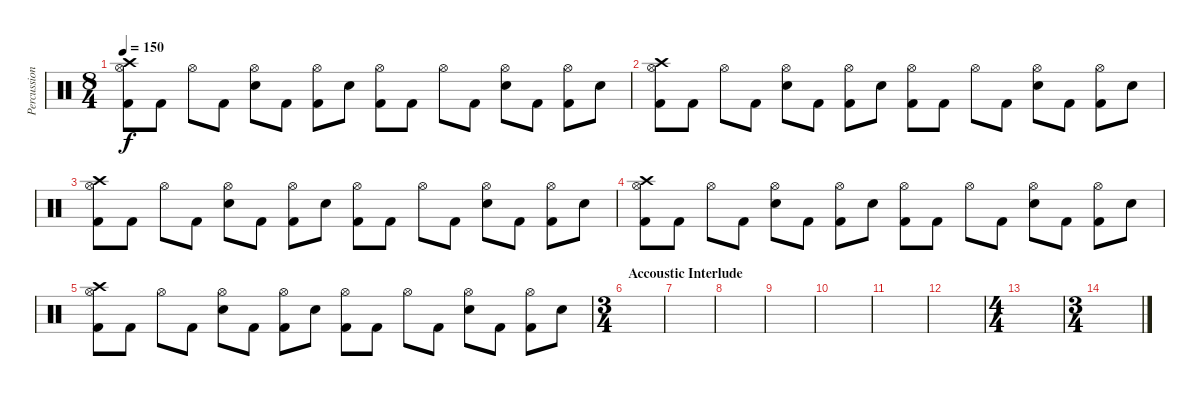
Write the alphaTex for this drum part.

\track ("Percussions" "Percussion") {instrument percussion}
\staff {score}
\articulation defaults
\ts (8 4)
\tempo 150
\clef neutral
\ks c
("Crash high (hit)" "Hi-Hat (open)" "Kick (hit) 2").8{dy f} "Kick (hit) 2".8 "Hi-Hat (open)".8 "Kick (hit) 2".8 ("Hi-Hat (open)" "Electric Snare (hit)").8 "Kick (hit) 2".8 ("Hi-Hat (open)" "Kick (hit) 2").8 "Electric Snare (hit)".8 ("Hi-Hat (open)" "Kick (hit) 2").8 "Kick (hit) 2".8 "Hi-Hat (open)".8 "Kick (hit) 2".8 ("Hi-Hat (open)" "Electric Snare (hit)").8 "Kick (hit) 2".8 ("Hi-Hat (open)" "Kick (hit) 2").8 "Electric Snare (hit)".8 |
("Crash high (hit)" "Hi-Hat (open)" "Kick (hit) 2").8 "Kick (hit) 2".8 "Hi-Hat (open)".8 "Kick (hit) 2".8 ("Hi-Hat (open)" "Electric Snare (hit)").8 "Kick (hit) 2".8 ("Hi-Hat (open)" "Kick (hit) 2").8 "Electric Snare (hit)".8 ("Hi-Hat (open)" "Kick (hit) 2").8 "Kick (hit) 2".8 "Hi-Hat (open)".8 "Kick (hit) 2".8 ("Hi-Hat (open)" "Electric Snare (hit)").8 "Kick (hit) 2".8 ("Hi-Hat (open)" "Kick (hit) 2").8 "Electric Snare (hit)".8 |
("Crash high (hit)" "Hi-Hat (open)" "Kick (hit) 2").8 "Kick (hit) 2".8 "Hi-Hat (open)".8 "Kick (hit) 2".8 ("Hi-Hat (open)" "Electric Snare (hit)").8 "Kick (hit) 2".8 ("Hi-Hat (open)" "Kick (hit) 2").8 "Electric Snare (hit)".8 ("Hi-Hat (open)" "Kick (hit) 2").8 "Kick (hit) 2".8 "Hi-Hat (open)".8 "Kick (hit) 2".8 ("Hi-Hat (open)" "Electric Snare (hit)").8 "Kick (hit) 2".8 ("Hi-Hat (open)" "Kick (hit) 2").8 "Electric Snare (hit)".8 |
("Crash high (hit)" "Hi-Hat (open)" "Kick (hit) 2").8 "Kick (hit) 2".8 "Hi-Hat (open)".8 "Kick (hit) 2".8 ("Hi-Hat (open)" "Electric Snare (hit)").8 "Kick (hit) 2".8 ("Hi-Hat (open)" "Kick (hit) 2").8 "Electric Snare (hit)".8 ("Hi-Hat (open)" "Kick (hit) 2").8 "Kick (hit) 2".8 "Hi-Hat (open)".8 "Kick (hit) 2".8 ("Hi-Hat (open)" "Electric Snare (hit)").8 "Kick (hit) 2".8 ("Hi-Hat (open)" "Kick (hit) 2").8 "Electric Snare (hit)".8 |
("Crash high (hit)" "Hi-Hat (open)" "Kick (hit) 2").8 "Kick (hit) 2".8 "Hi-Hat (open)".8 "Kick (hit) 2".8 ("Hi-Hat (open)" "Electric Snare (hit)").8 "Kick (hit) 2".8 ("Hi-Hat (open)" "Kick (hit) 2").8 "Electric Snare (hit)".8 ("Hi-Hat (open)" "Kick (hit) 2").8 "Kick (hit) 2".8 "Hi-Hat (open)".8 "Kick (hit) 2".8 ("Hi-Hat (open)" "Electric Snare (hit)").8 "Kick (hit) 2".8 ("Hi-Hat (open)" "Kick (hit) 2").8 "Electric Snare (hit)".8 |
\ts (3 4)
\section ("" "Accoustic Interlude")
|
|
|
|
|
|
|
\ts (4 4)
|
\ts (3 4)
